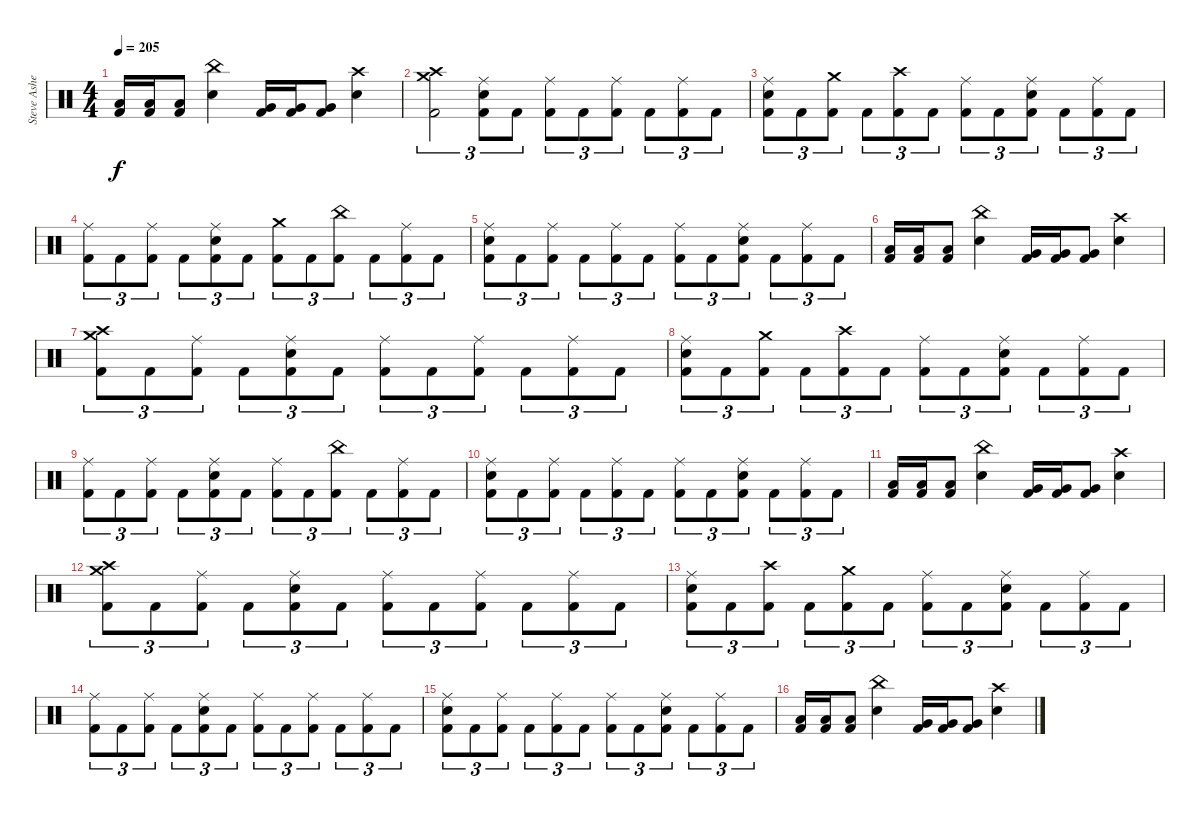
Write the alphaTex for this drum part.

\track ("Steve Asheim" "Steve Ashe") {instrument percussion}
\staff {score}
\articulation defaults
\ts (4 4)
\tempo 205
\clef neutral
\ks c
("Low Tom (hit)" "Kick (hit) 2").16{dy f volume 14} ("Low Tom (hit)" "Kick (hit) 2").16 ("Low Tom (hit)" "Kick (hit) 2").8 ("China (hit)" "Electric Snare (hit)").4 ("Very Low Tom (hit)" "Kick (hit) 2").16 ("Very Low Tom (hit)" "Kick (hit) 2").16 ("Very Low Tom (hit)" "Kick (hit) 2").8 ("Crash high (hit)" "Electric Snare (hit)").4 |
("Crash medium (hit)" "Crash high (hit)" "Kick (hit) 2").2{tu (3 2)} ("Ride (middle)" "Electric Snare (hit)" "Kick (hit) 2").8{tu (3 2)} "Kick (hit) 2".8{tu (3 2)} ("Ride (middle)" "Kick (hit) 2").8{tu (3 2)} "Kick (hit) 2".8{tu (3 2)} ("Ride (middle)" "Kick (hit) 2").8{tu (3 2)} "Kick (hit) 2".8{tu (3 2)} ("Ride (middle)" "Kick (hit) 2").8{tu (3 2)} "Kick (hit) 2".8{tu (3 2)} |
("Ride (middle)" "Electric Snare (hit)" "Kick (hit) 2").8{tu (3 2)} "Kick (hit) 2".8{tu (3 2)} ("Crash medium (hit)" "Kick (hit) 2").8{tu (3 2)} "Kick (hit) 2".8{tu (3 2)} ("Crash high (hit)" "Kick (hit) 2").8{tu (3 2)} "Kick (hit) 2".8{tu (3 2)} ("Ride (middle)" "Kick (hit) 2").8{tu (3 2)} "Kick (hit) 2".8{tu (3 2)} ("Ride (middle)" "Electric Snare (hit)" "Kick (hit) 2").8{tu (3 2)} "Kick (hit) 2".8{tu (3 2)} ("Ride (middle)" "Kick (hit) 2").8{tu (3 2)} "Kick (hit) 2".8{tu (3 2)} |
("Ride (middle)" "Kick (hit) 2").8{tu (3 2)} "Kick (hit) 2".8{tu (3 2)} ("Ride (middle)" "Kick (hit) 2").8{tu (3 2)} "Kick (hit) 2".8{tu (3 2)} ("Ride (middle)" "Electric Snare (hit)" "Kick (hit) 2").8{tu (3 2)} "Kick (hit) 2".8{tu (3 2)} ("Crash medium (hit)" "Kick (hit) 2").8{tu (3 2)} "Kick (hit) 2".8{tu (3 2)} ("China (hit)" "Kick (hit) 2").8{tu (3 2)} "Kick (hit) 2".8{tu (3 2)} ("Ride (middle)" "Kick (hit) 2").8{tu (3 2)} "Kick (hit) 2".8{tu (3 2)} |
("Ride (middle)" "Electric Snare (hit)" "Kick (hit) 2").8{tu (3 2)} "Kick (hit) 2".8{tu (3 2)} ("Ride (middle)" "Kick (hit) 2").8{tu (3 2)} "Kick (hit) 2".8{tu (3 2)} ("Ride (middle)" "Kick (hit) 2").8{tu (3 2)} "Kick (hit) 2".8{tu (3 2)} ("Ride (middle)" "Kick (hit) 2").8{tu (3 2)} "Kick (hit) 2".8{tu (3 2)} ("Ride (middle)" "Electric Snare (hit)" "Kick (hit) 2").8{tu (3 2)} "Kick (hit) 2".8{tu (3 2)} ("Ride (middle)" "Kick (hit) 2").8{tu (3 2)} "Kick (hit) 2".8{tu (3 2)} |
("Low Tom (hit)" "Kick (hit) 2").16 ("Low Tom (hit)" "Kick (hit) 2").16 ("Low Tom (hit)" "Kick (hit) 2").8 ("China (hit)" "Electric Snare (hit)").4 ("Very Low Tom (hit)" "Kick (hit) 2").16 ("Very Low Tom (hit)" "Kick (hit) 2").16 ("Very Low Tom (hit)" "Kick (hit) 2").8 ("Crash high (hit)" "Electric Snare (hit)").4 |
("Crash medium (hit)" "Crash high (hit)" "Kick (hit) 2").8{tu (3 2)} "Kick (hit) 2".8{tu (3 2)} ("Ride (middle)" "Kick (hit) 2").8{tu (3 2)} "Kick (hit) 2".8{tu (3 2)} ("Ride (middle)" "Electric Snare (hit)" "Kick (hit) 2").8{tu (3 2)} "Kick (hit) 2".8{tu (3 2)} ("Ride (middle)" "Kick (hit) 2").8{tu (3 2)} "Kick (hit) 2".8{tu (3 2)} ("Ride (middle)" "Kick (hit) 2").8{tu (3 2)} "Kick (hit) 2".8{tu (3 2)} ("Ride (middle)" "Kick (hit) 2").8{tu (3 2)} "Kick (hit) 2".8{tu (3 2)} |
("Ride (middle)" "Electric Snare (hit)" "Kick (hit) 2").8{tu (3 2)} "Kick (hit) 2".8{tu (3 2)} ("Crash medium (hit)" "Kick (hit) 2").8{tu (3 2)} "Kick (hit) 2".8{tu (3 2)} ("Crash high (hit)" "Kick (hit) 2").8{tu (3 2)} "Kick (hit) 2".8{tu (3 2)} ("Ride (middle)" "Kick (hit) 2").8{tu (3 2)} "Kick (hit) 2".8{tu (3 2)} ("Ride (middle)" "Electric Snare (hit)" "Kick (hit) 2").8{tu (3 2)} "Kick (hit) 2".8{tu (3 2)} ("Ride (middle)" "Kick (hit) 2").8{tu (3 2)} "Kick (hit) 2".8{tu (3 2)} |
("Ride (middle)" "Kick (hit) 2").8{tu (3 2)} "Kick (hit) 2".8{tu (3 2)} ("Ride (middle)" "Kick (hit) 2").8{tu (3 2)} "Kick (hit) 2".8{tu (3 2)} ("Ride (middle)" "Electric Snare (hit)" "Kick (hit) 2").8{tu (3 2)} "Kick (hit) 2".8{tu (3 2)} ("Ride (middle)" "Kick (hit) 2").8{tu (3 2)} "Kick (hit) 2".8{tu (3 2)} ("China (hit)" "Kick (hit) 2").8{tu (3 2)} "Kick (hit) 2".8{tu (3 2)} ("Ride (middle)" "Kick (hit) 2").8{tu (3 2)} "Kick (hit) 2".8{tu (3 2)} |
("Ride (middle)" "Electric Snare (hit)" "Kick (hit) 2").8{tu (3 2)} "Kick (hit) 2".8{tu (3 2)} ("Ride (middle)" "Kick (hit) 2").8{tu (3 2)} "Kick (hit) 2".8{tu (3 2)} ("Ride (middle)" "Kick (hit) 2").8{tu (3 2)} "Kick (hit) 2".8{tu (3 2)} ("Ride (middle)" "Kick (hit) 2").8{tu (3 2)} "Kick (hit) 2".8{tu (3 2)} ("Ride (middle)" "Electric Snare (hit)" "Kick (hit) 2").8{tu (3 2)} "Kick (hit) 2".8{tu (3 2)} ("Ride (middle)" "Kick (hit) 2").8{tu (3 2)} "Kick (hit) 2".8{tu (3 2)} |
("Low Tom (hit)" "Kick (hit) 2").16 ("Low Tom (hit)" "Kick (hit) 2").16 ("Low Tom (hit)" "Kick (hit) 2").8 ("China (hit)" "Electric Snare (hit)").4 ("Very Low Tom (hit)" "Kick (hit) 2").16 ("Very Low Tom (hit)" "Kick (hit) 2").16 ("Very Low Tom (hit)" "Kick (hit) 2").8 ("Crash high (hit)" "Electric Snare (hit)").4 |
("Crash medium (hit)" "Crash high (hit)" "Kick (hit) 2").8{tu (3 2)} "Kick (hit) 2".8{tu (3 2)} ("Ride (middle)" "Kick (hit) 2").8{tu (3 2)} "Kick (hit) 2".8{tu (3 2)} ("Ride (middle)" "Electric Snare (hit)" "Kick (hit) 2").8{tu (3 2)} "Kick (hit) 2".8{tu (3 2)} ("Ride (middle)" "Kick (hit) 2").8{tu (3 2)} "Kick (hit) 2".8{tu (3 2)} ("Ride (middle)" "Kick (hit) 2").8{tu (3 2)} "Kick (hit) 2".8{tu (3 2)} ("Ride (middle)" "Kick (hit) 2").8{tu (3 2)} "Kick (hit) 2".8{tu (3 2)} |
("Ride (middle)" "Electric Snare (hit)" "Kick (hit) 2").8{tu (3 2)} "Kick (hit) 2".8{tu (3 2)} ("Crash high (hit)" "Kick (hit) 2").8{tu (3 2)} "Kick (hit) 2".8{tu (3 2)} ("Crash medium (hit)" "Kick (hit) 2").8{tu (3 2)} "Kick (hit) 2".8{tu (3 2)} ("Ride (middle)" "Kick (hit) 2").8{tu (3 2)} "Kick (hit) 2".8{tu (3 2)} ("Ride (middle)" "Electric Snare (hit)" "Kick (hit) 2").8{tu (3 2)} "Kick (hit) 2".8{tu (3 2)} ("Ride (middle)" "Kick (hit) 2").8{tu (3 2)} "Kick (hit) 2".8{tu (3 2)} |
("Ride (middle)" "Kick (hit) 2").8{tu (3 2)} "Kick (hit) 2".8{tu (3 2)} ("Ride (middle)" "Kick (hit) 2").8{tu (3 2)} "Kick (hit) 2".8{tu (3 2)} ("Ride (middle)" "Electric Snare (hit)" "Kick (hit) 2").8{tu (3 2)} "Kick (hit) 2".8{tu (3 2)} ("Ride (middle)" "Kick (hit) 2").8{tu (3 2)} "Kick (hit) 2".8{tu (3 2)} ("Ride (middle)" "Kick (hit) 2").8{tu (3 2)} "Kick (hit) 2".8{tu (3 2)} ("Ride (middle)" "Kick (hit) 2").8{tu (3 2)} "Kick (hit) 2".8{tu (3 2)} |
("Ride (middle)" "Electric Snare (hit)" "Kick (hit) 2").8{tu (3 2)} "Kick (hit) 2".8{tu (3 2)} ("Ride (middle)" "Kick (hit) 2").8{tu (3 2)} "Kick (hit) 2".8{tu (3 2)} ("Ride (middle)" "Kick (hit) 2").8{tu (3 2)} "Kick (hit) 2".8{tu (3 2)} ("Ride (middle)" "Kick (hit) 2").8{tu (3 2)} "Kick (hit) 2".8{tu (3 2)} ("Ride (middle)" "Electric Snare (hit)" "Kick (hit) 2").8{tu (3 2)} "Kick (hit) 2".8{tu (3 2)} ("Ride (middle)" "Kick (hit) 2").8{tu (3 2)} "Kick (hit) 2".8{tu (3 2)} |
("Low Tom (hit)" "Kick (hit) 2").16 ("Low Tom (hit)" "Kick (hit) 2").16 ("Low Tom (hit)" "Kick (hit) 2").8 ("China (hit)" "Electric Snare (hit)").4 ("Very Low Tom (hit)" "Kick (hit) 2").16 ("Very Low Tom (hit)" "Kick (hit) 2").16 ("Very Low Tom (hit)" "Kick (hit) 2").8 ("Crash high (hit)" "Electric Snare (hit)").4
